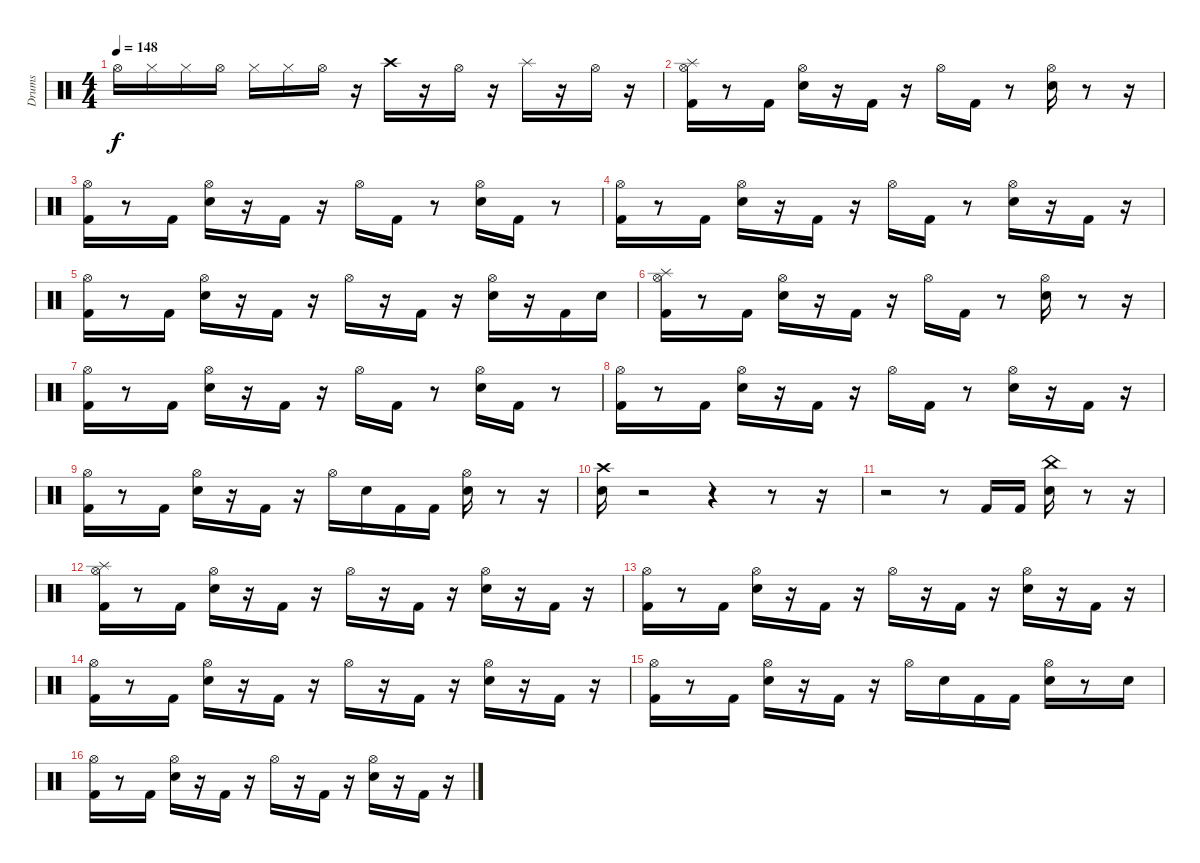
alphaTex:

\track ("Drums" "Drums") {instrument percussion}
\staff {score}
\articulation defaults
\ts (4 4)
\tempo 148
\clef neutral
\ks c "Hi-Hat (open)".16{dy f} "Hi-Hat (closed)".16 "Hi-Hat (closed)".16 "Hi-Hat (open)".16 "Hi-Hat (closed)".16 "Hi-Hat (closed)".16 "Hi-Hat (open)".16
r.16 "Crash high (hit)".16 r.16 "Hi-Hat (open)".16 r.16 "Splash (hit)".16 r.16 "Hi-Hat (open)".16 r.16 |
("Splash (hit)" "Hi-Hat (open)" "Kick (hit) 2").16 r.8 "Kick (hit) 2".16 ("Hi-Hat (open)" "Snare (hit) 2").16 r.16 "Kick (hit) 2".16 r.16 "Hi-Hat (open)".16 "Kick (hit) 2".16 r.8 ("Hi-Hat (open)" "Snare (hit) 2").16 r.8 r.16 |
("Hi-Hat (open)" "Kick (hit) 2").16 r.8 "Kick (hit) 2".16 ("Hi-Hat (open)" "Snare (hit) 2").16 r.16 "Kick (hit) 2".16 r.16 "Hi-Hat (open)".16 "Kick (hit) 2".16 r.8 ("Hi-Hat (open)" "Snare (hit) 2").16 "Kick (hit) 2".16 r.8 |
("Hi-Hat (open)" "Kick (hit) 2").16 r.8 "Kick (hit) 2".16 ("Hi-Hat (open)" "Snare (hit) 2").16 r.16 "Kick (hit) 2".16 r.16 "Hi-Hat (open)".16 "Kick (hit) 2".16 r.8 ("Hi-Hat (open)" "Snare (hit) 2").16 r.16 "Kick (hit) 2".16 r.16 |
("Hi-Hat (open)" "Kick (hit) 2").16 r.8 "Kick (hit) 2".16 ("Hi-Hat (open)" "Snare (hit) 2").16 r.16 "Kick (hit) 2".16 r.16 "Hi-Hat (open)".16 r.16 "Kick (hit) 2".16 r.16 ("Hi-Hat (open)" "Snare (hit) 2").16 r.16 "Kick (hit) 2".16 "Snare (hit) 2".16 |
("Hi-Hat (open)" "Splash (hit)" "Kick (hit) 2").16 r.8 "Kick (hit) 2".16 ("Hi-Hat (open)" "Snare (hit) 2").16 r.16 "Kick (hit) 2".16 r.16 "Hi-Hat (open)".16 "Kick (hit) 2".16 r.8 ("Hi-Hat (open)" "Snare (hit) 2").16 r.8 r.16 |
("Hi-Hat (open)" "Kick (hit) 2").16 r.8 "Kick (hit) 2".16 ("Hi-Hat (open)" "Snare (hit) 2").16 r.16 "Kick (hit) 2".16 r.16 "Hi-Hat (open)".16 "Kick (hit) 2".16 r.8 ("Hi-Hat (open)" "Snare (hit) 2").16 "Kick (hit) 2".16 r.8 |
("Hi-Hat (open)" "Kick (hit) 2").16 r.8 "Kick (hit) 2".16 ("Hi-Hat (open)" "Snare (hit) 2").16 r.16 "Kick (hit) 2".16 r.16 "Hi-Hat (open)".16 "Kick (hit) 2".16 r.8 ("Hi-Hat (open)" "Snare (hit) 2").16 r.16 "Kick (hit) 2".16 r.16 |
("Hi-Hat (open)" "Kick (hit) 2").16 r.8 "Kick (hit) 2".16 ("Hi-Hat (open)" "Snare (hit) 2").16 r.16 "Kick (hit) 2".16 r.16 "Hi-Hat (open)".16 "Snare (hit) 2".16 "Kick (hit) 2".16 "Kick (hit) 2".16 ("Hi-Hat (open)" "Snare (hit) 2").16 r.8 r.16 |
("Crash high (hit)" "Snare (hit) 2").16 r.2 r.4 r.8 r.16 |
r.2 r.8 "Kick (hit) 2".16 "Kick (hit) 2".16 ("China (hit)" "Snare (hit) 2").16 r.8 r.16 |
("Hi-Hat (open)" "Splash (hit)" "Kick (hit) 2").16 r.8 "Kick (hit) 2".16 ("Hi-Hat (open)" "Snare (hit) 2").16 r.16 "Kick (hit) 2".16 r.16 "Hi-Hat (open)".16 r.16 "Kick (hit) 2".16 r.16 ("Hi-Hat (open)" "Snare (hit) 2").16 r.16 "Kick (hit) 2".16 r.16 |
("Hi-Hat (open)" "Kick (hit) 2").16 r.8 "Kick (hit) 2".16 ("Hi-Hat (open)" "Snare (hit) 2").16 r.16 "Kick (hit) 2".16 r.16 "Hi-Hat (open)".16 r.16 "Kick (hit) 2".16 r.16 ("Hi-Hat (open)" "Snare (hit) 2").16 r.16 "Kick (hit) 2".16 r.16 |
("Hi-Hat (open)" "Kick (hit) 2").16 r.8 "Kick (hit) 2".16 ("Hi-Hat (open)" "Snare (hit) 2").16 r.16 "Kick (hit) 2".16 r.16 "Hi-Hat (open)".16 r.16 "Kick (hit) 2".16 r.16 ("Hi-Hat (open)" "Snare (hit) 2").16 r.16 "Kick (hit) 2".16 r.16 |
("Hi-Hat (open)" "Kick (hit) 2").16 r.8 "Kick (hit) 2".16 ("Hi-Hat (open)" "Snare (hit) 2").16 r.16 "Kick (hit) 2".16 r.16 "Hi-Hat (open)".16 "Snare (hit) 2".16 "Kick (hit) 2".16 "Kick (hit) 2".16 ("Hi-Hat (open)" "Snare (hit) 2").16 r.8 "Snare (hit) 2".16 |
("Hi-Hat (open)" "Kick (hit) 2").16 r.8 "Kick (hit) 2".16 ("Hi-Hat (open)" "Snare (hit) 2").16 r.16 "Kick (hit) 2".16 r.16 "Hi-Hat (open)".16 r.16 "Kick (hit) 2".16 r.16 ("Hi-Hat (open)" "Snare (hit) 2").16 r.16 "Kick (hit) 2".16 r.16
